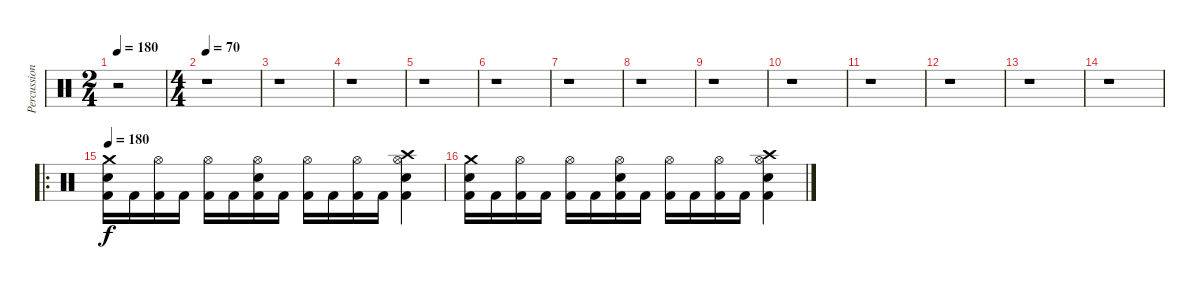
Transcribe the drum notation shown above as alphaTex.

\track ("Percussion" "Percussion") {instrument percussion}
\staff {score}
\articulation defaults
\ts (2 4)
\tempo 180
\tempo 70
\tempo 180
\clef neutral
\ks c
r.2{dy f} |
\ts (4 4)
\tempo 70
r.1 |
r.1 |
r.1 |
r.1 |
r.1 |
r.1 |
r.1 |
r.1 |
r.1 |
r.1 |
r.1 |
r.1 |
r.1 |
\ro
\tempo 180
("Crash medium (hit)" "Electric Snare (hit)" "Kick (hit) 2").16 "Kick (hit) 2".16 ("Hi-Hat (open)" "Kick (hit) 2").16 "Kick (hit) 2".16 ("Hi-Hat (open)" "Kick (hit) 2").16 "Kick (hit) 2".16 ("Hi-Hat (open)" "Electric Snare (hit)" "Kick (hit) 2").16 "Kick (hit) 2".16 ("Hi-Hat (open)" "Kick (hit) 2").16 "Kick (hit) 2".16 ("Hi-Hat (open)" "Kick (hit) 2").16 "Kick (hit) 2".16 ("Crash high (hit)" "Hi-Hat (open)" "Electric Snare (hit)" "Kick (hit) 2").4 |
("Crash medium (hit)" "Electric Snare (hit)" "Kick (hit) 2").16 "Kick (hit) 2".16 ("Hi-Hat (open)" "Kick (hit) 2").16 "Kick (hit) 2".16 ("Hi-Hat (open)" "Kick (hit) 2").16 "Kick (hit) 2".16 ("Hi-Hat (open)" "Electric Snare (hit)" "Kick (hit) 2").16 "Kick (hit) 2".16 ("Hi-Hat (open)" "Kick (hit) 2").16 "Kick (hit) 2".16 ("Hi-Hat (open)" "Kick (hit) 2").16 "Kick (hit) 2".16 ("Crash high (hit)" "Hi-Hat (open)" "Electric Snare (hit)" "Kick (hit) 2").4
